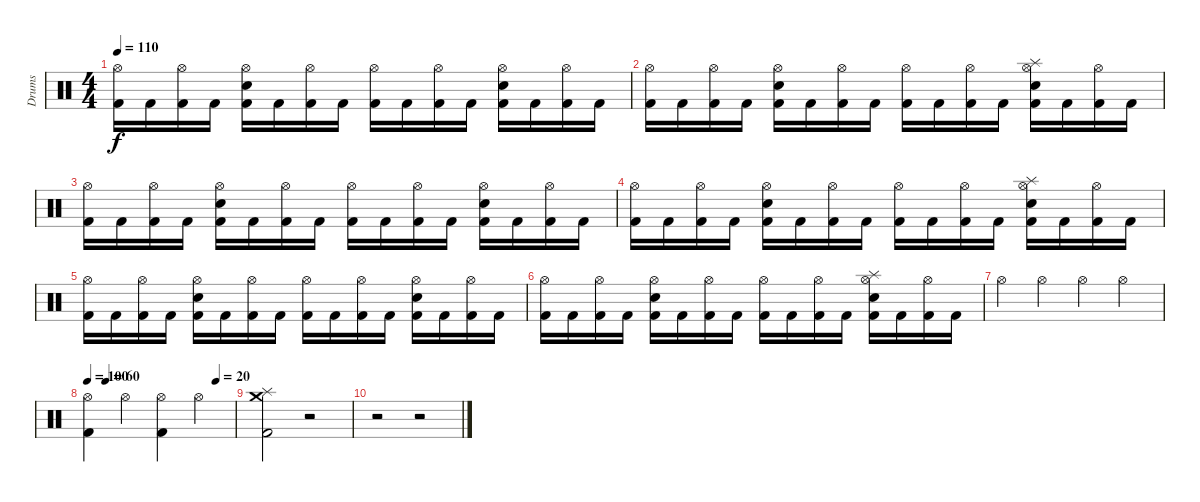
\track ("Drums" "Drums") {instrument percussion}
\staff {score}
\articulation defaults
\ts (4 4)
\tempo 110
\clef neutral
\ks c
("Hi-Hat (open)" "Kick (hit) 2").16{dy f} "Kick (hit) 2".16 ("Hi-Hat (open)" "Kick (hit) 2").16 "Kick (hit) 2".16 ("Hi-Hat (open)" "Snare (hit) 2" "Kick (hit) 2").16 "Kick (hit) 2".16 ("Hi-Hat (open)" "Kick (hit) 2").16 "Kick (hit) 2".16 ("Hi-Hat (open)" "Kick (hit) 2").16 "Kick (hit) 2".16 ("Hi-Hat (open)" "Kick (hit) 2").16 "Kick (hit) 2".16 ("Hi-Hat (open)" "Snare (hit) 2" "Kick (hit) 2").16 "Kick (hit) 2".16 ("Hi-Hat (open)" "Kick (hit) 2").16 "Kick (hit) 2".16 |
("Hi-Hat (open)" "Kick (hit) 2").16 "Kick (hit) 2".16 ("Hi-Hat (open)" "Kick (hit) 2").16 "Kick (hit) 2".16 ("Hi-Hat (open)" "Snare (hit) 2" "Kick (hit) 2").16 "Kick (hit) 2".16 ("Hi-Hat (open)" "Kick (hit) 2").16 "Kick (hit) 2".16 ("Hi-Hat (open)" "Kick (hit) 2").16 "Kick (hit) 2".16 ("Hi-Hat (open)" "Kick (hit) 2").16 "Kick (hit) 2".16 ("Hi-Hat (open)" "Snare (hit) 2" "Splash (hit)" "Kick (hit) 2").16 "Kick (hit) 2".16 ("Hi-Hat (open)" "Kick (hit) 2").16 "Kick (hit) 2".16 |
("Hi-Hat (open)" "Kick (hit) 2").16 "Kick (hit) 2".16 ("Hi-Hat (open)" "Kick (hit) 2").16 "Kick (hit) 2".16 ("Hi-Hat (open)" "Snare (hit) 2" "Kick (hit) 2").16 "Kick (hit) 2".16 ("Hi-Hat (open)" "Kick (hit) 2").16 "Kick (hit) 2".16 ("Hi-Hat (open)" "Kick (hit) 2").16 "Kick (hit) 2".16 ("Hi-Hat (open)" "Kick (hit) 2").16 "Kick (hit) 2".16 ("Hi-Hat (open)" "Snare (hit) 2" "Kick (hit) 2").16 "Kick (hit) 2".16 ("Hi-Hat (open)" "Kick (hit) 2").16 "Kick (hit) 2".16 |
("Hi-Hat (open)" "Kick (hit) 2").16 "Kick (hit) 2".16 ("Hi-Hat (open)" "Kick (hit) 2").16 "Kick (hit) 2".16 ("Hi-Hat (open)" "Snare (hit) 2" "Kick (hit) 2").16 "Kick (hit) 2".16 ("Hi-Hat (open)" "Kick (hit) 2").16 "Kick (hit) 2".16 ("Hi-Hat (open)" "Kick (hit) 2").16 "Kick (hit) 2".16 ("Hi-Hat (open)" "Kick (hit) 2").16 "Kick (hit) 2".16 ("Hi-Hat (open)" "Snare (hit) 2" "Splash (hit)" "Kick (hit) 2").16 "Kick (hit) 2".16 ("Hi-Hat (open)" "Kick (hit) 2").16 "Kick (hit) 2".16 |
("Hi-Hat (open)" "Kick (hit) 2").16 "Kick (hit) 2".16 ("Hi-Hat (open)" "Kick (hit) 2").16 "Kick (hit) 2".16 ("Hi-Hat (open)" "Snare (hit) 2" "Kick (hit) 2").16 "Kick (hit) 2".16 ("Hi-Hat (open)" "Kick (hit) 2").16 "Kick (hit) 2".16 ("Hi-Hat (open)" "Kick (hit) 2").16 "Kick (hit) 2".16 ("Hi-Hat (open)" "Kick (hit) 2").16 "Kick (hit) 2".16 ("Hi-Hat (open)" "Snare (hit) 2" "Kick (hit) 2").16 "Kick (hit) 2".16 ("Hi-Hat (open)" "Kick (hit) 2").16 "Kick (hit) 2".16 |
("Hi-Hat (open)" "Kick (hit) 2").16 "Kick (hit) 2".16 ("Hi-Hat (open)" "Kick (hit) 2").16 "Kick (hit) 2".16 ("Hi-Hat (open)" "Snare (hit) 2" "Kick (hit) 2").16 "Kick (hit) 2".16 ("Hi-Hat (open)" "Kick (hit) 2").16 "Kick (hit) 2".16 ("Hi-Hat (open)" "Kick (hit) 2").16 "Kick (hit) 2".16 ("Hi-Hat (open)" "Kick (hit) 2").16 "Kick (hit) 2".16 ("Hi-Hat (open)" "Snare (hit) 2" "Splash (hit)" "Kick (hit) 2").16 "Kick (hit) 2".16 ("Hi-Hat (open)" "Kick (hit) 2").16 "Kick (hit) 2".16 |
"Hi-Hat (open)".4 "Hi-Hat (open)".4 "Hi-Hat (open)".4 "Hi-Hat (open)".4 |
\tempo 100
\tempo (60 0.125)
\tempo (20 0.875)
("Hi-Hat (open)" "Kick (hit) 2").4 "Hi-Hat (open)".4 ("Hi-Hat (open)" "Kick (hit) 2").4 "Hi-Hat (open)".4 |
("Splash (hit)" "Crash medium (hit)" "Kick (hit) 2").2 r.2 |
r.2 r.2
